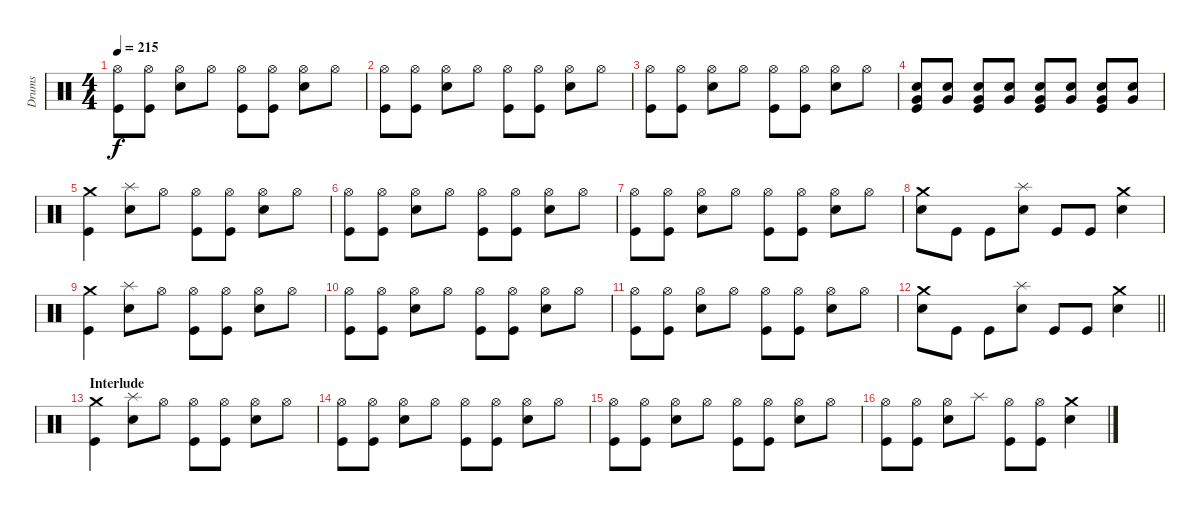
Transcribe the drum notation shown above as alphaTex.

\track ("Drums" "Drums") {instrument percussion}
\staff {score}
\articulation defaults
\ts (4 4)
\tempo 215
\clef neutral
\ks c
("Kick (hit)" "Hi-Hat (open)").8{dy f} ("Kick (hit)" "Hi-Hat (open)").8 ("Snare (hit) 2" "Hi-Hat (open)").8 "Hi-Hat (open)".8 ("Kick (hit)" "Hi-Hat (open)").8 ("Kick (hit)" "Hi-Hat (open)").8 ("Snare (hit) 2" "Hi-Hat (open)").8 "Hi-Hat (open)".8 |
("Kick (hit)" "Hi-Hat (open)").8 ("Kick (hit)" "Hi-Hat (open)").8 ("Snare (hit) 2" "Hi-Hat (open)").8 "Hi-Hat (open)".8 ("Kick (hit)" "Hi-Hat (open)").8 ("Kick (hit)" "Hi-Hat (open)").8 ("Snare (hit) 2" "Hi-Hat (open)").8 "Hi-Hat (open)".8 |
("Kick (hit)" "Hi-Hat (open)").8 ("Kick (hit)" "Hi-Hat (open)").8 ("Snare (hit) 2" "Hi-Hat (open)").8 "Hi-Hat (open)".8 ("Kick (hit)" "Hi-Hat (open)").8 ("Kick (hit)" "Hi-Hat (open)").8 ("Snare (hit) 2" "Hi-Hat (open)").8 "Hi-Hat (open)".8 |
("Kick (hit)" "Very Low Tom (hit)" "Snare (hit) 2").8 ("Snare (hit) 2" "Very Low Tom (hit)").8 ("Kick (hit)" "Very Low Tom (hit)" "Snare (hit) 2").8 ("Snare (hit) 2" "Very Low Tom (hit)").8 ("Kick (hit)" "Very Low Tom (hit)" "Snare (hit) 2").8 ("Snare (hit) 2" "Very Low Tom (hit)").8 ("Kick (hit)" "Very Low Tom (hit)" "Snare (hit) 2").8 ("Snare (hit) 2" "Very Low Tom (hit)").8 |
("Kick (hit)" "Crash medium (hit)").4 ("Snare (hit) 2" "Splash (hit)").8 "Hi-Hat (open)".8 ("Kick (hit)" "Hi-Hat (open)").8 ("Kick (hit)" "Hi-Hat (open)").8 ("Snare (hit) 2" "Hi-Hat (open)").8 "Hi-Hat (open)".8 |
("Kick (hit)" "Hi-Hat (open)").8 ("Kick (hit)" "Hi-Hat (open)").8 ("Snare (hit) 2" "Hi-Hat (open)").8 "Hi-Hat (open)".8 ("Kick (hit)" "Hi-Hat (open)").8 ("Kick (hit)" "Hi-Hat (open)").8 ("Snare (hit) 2" "Hi-Hat (open)").8 "Hi-Hat (open)".8 |
("Kick (hit)" "Hi-Hat (open)").8 ("Kick (hit)" "Hi-Hat (open)").8 ("Snare (hit) 2" "Hi-Hat (open)").8 "Hi-Hat (open)".8 ("Kick (hit)" "Hi-Hat (open)").8 ("Kick (hit)" "Hi-Hat (open)").8 ("Snare (hit) 2" "Hi-Hat (open)").8 "Hi-Hat (open)".8 |
("Snare (hit) 2" "Crash medium (hit)").8 "Kick (hit)".8 "Kick (hit)".8 ("Snare (hit) 2" "Splash (hit)").8 "Kick (hit)".8 "Kick (hit)".8 ("Snare (hit) 2" "Crash medium (hit)").4 |
("Kick (hit)" "Crash medium (hit)").4 ("Snare (hit) 2" "Splash (hit)").8 "Hi-Hat (open)".8 ("Kick (hit)" "Hi-Hat (open)").8 ("Kick (hit)" "Hi-Hat (open)").8 ("Snare (hit) 2" "Hi-Hat (open)").8 "Hi-Hat (open)".8 |
("Kick (hit)" "Hi-Hat (open)").8 ("Kick (hit)" "Hi-Hat (open)").8 ("Snare (hit) 2" "Hi-Hat (open)").8 "Hi-Hat (open)".8 ("Kick (hit)" "Hi-Hat (open)").8 ("Kick (hit)" "Hi-Hat (open)").8 ("Snare (hit) 2" "Hi-Hat (open)").8 "Hi-Hat (open)".8 |
("Kick (hit)" "Hi-Hat (open)").8 ("Kick (hit)" "Hi-Hat (open)").8 ("Snare (hit) 2" "Hi-Hat (open)").8 "Hi-Hat (open)".8 ("Kick (hit)" "Hi-Hat (open)").8 ("Kick (hit)" "Hi-Hat (open)").8 ("Snare (hit) 2" "Hi-Hat (open)").8 "Hi-Hat (open)".8 |
\barLineRight lightlight
("Snare (hit) 2" "Crash medium (hit)").8 "Kick (hit)".8 "Kick (hit)".8 ("Snare (hit) 2" "Splash (hit)").8 "Kick (hit)".8 "Kick (hit)".8 ("Snare (hit) 2" "Crash medium (hit)").4 |
\section ("" "Interlude")
("Kick (hit)" "Crash medium (hit)").4 ("Snare (hit) 2" "Splash (hit)").8 "Hi-Hat (open)".8 ("Kick (hit)" "Hi-Hat (open)").8 ("Kick (hit)" "Hi-Hat (open)").8 ("Snare (hit) 2" "Hi-Hat (open)").8 "Hi-Hat (open)".8 |
("Kick (hit)" "Hi-Hat (open)").8 ("Kick (hit)" "Hi-Hat (open)").8 ("Snare (hit) 2" "Hi-Hat (open)").8 "Hi-Hat (open)".8 ("Kick (hit)" "Hi-Hat (open)").8 ("Kick (hit)" "Hi-Hat (open)").8 ("Snare (hit) 2" "Hi-Hat (open)").8 "Hi-Hat (open)".8 |
("Kick (hit)" "Hi-Hat (open)").8 ("Kick (hit)" "Hi-Hat (open)").8 ("Snare (hit) 2" "Hi-Hat (open)").8 "Hi-Hat (open)".8 ("Kick (hit)" "Hi-Hat (open)").8 ("Kick (hit)" "Hi-Hat (open)").8 ("Snare (hit) 2" "Hi-Hat (open)").8 "Hi-Hat (open)".8 |
("Kick (hit)" "Hi-Hat (open)").8 ("Kick (hit)" "Hi-Hat (open)").8 ("Snare (hit) 2" "Hi-Hat (open)").8 "Splash (hit)".8 ("Kick (hit)" "Hi-Hat (open)").8 ("Kick (hit)" "Hi-Hat (open)").8 ("Snare (hit) 2" "Crash medium (hit)").4
